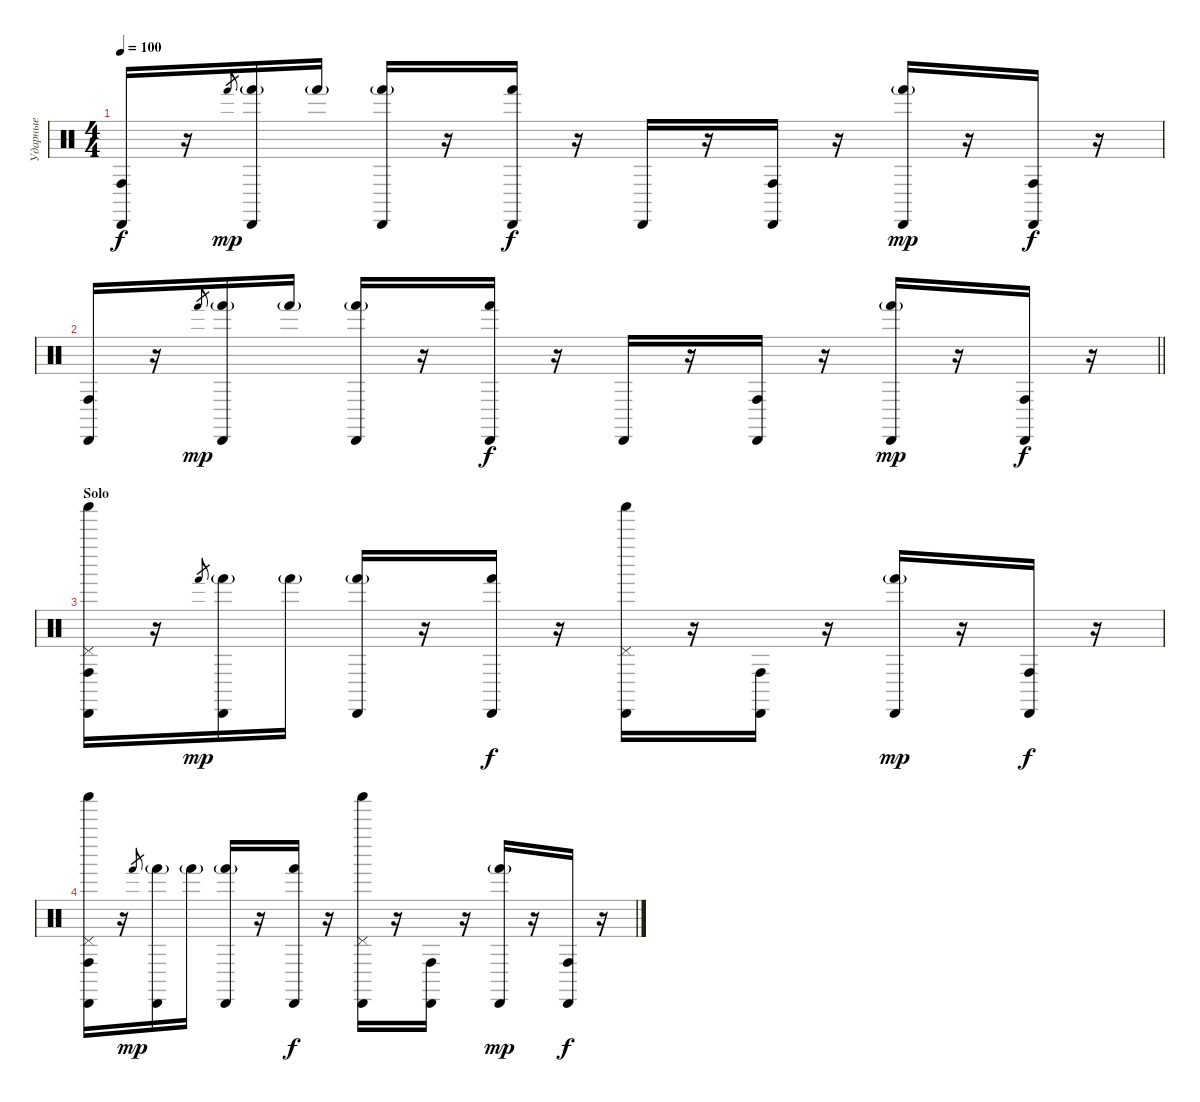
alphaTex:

\track ("Ударные" "Ударные") {instrument percussion}
\staff {score}
\articulation defaults
\ts (4 4)
\tempo 100
\clef neutral
\ks c
("Conga high (hit)" "Cabasa (hit)").16{dy f} r.16 "Hand (hit)".8{gr dy mp} ("Hand (hit)"{g} "Cabasa (hit)").16 "Hand (hit)"{g}.16 ("Hand (hit)"{g} "Cabasa (hit)").16 r.16 ("Hand (hit)" "Cabasa (hit)").16{dy f} r.16 "Cabasa (hit)".16 r.16 ("Conga high (hit)" "Cabasa (hit)").16 r.16 ("Hand (hit)"{g} "Cabasa (hit)").16{dy mp} r.16 ("Conga high (hit)" "Cabasa (hit)").16{dy f} r.16 |
\barLineRight lightlight
("Conga high (hit)" "Cabasa (hit)").16 r.16 "Hand (hit)".8{gr dy mp} ("Hand (hit)"{g} "Cabasa (hit)").16 "Hand (hit)"{g}.16 ("Hand (hit)"{g} "Cabasa (hit)").16 r.16 ("Hand (hit)" "Cabasa (hit)").16{dy f} r.16 "Cabasa (hit)".16 r.16 ("Conga high (hit)" "Cabasa (hit)").16 r.16 ("Hand (hit)"{g} "Cabasa (hit)").16{dy mp} r.16 ("Conga high (hit)" "Cabasa (hit)").16{dy f} r.16 |
\section ("" "Solo")
("Pedal Hi-Hat (hit)" "Shaker (hit)" "Conga high (hit)" "Cabasa (hit)").16 r.16 "Hand (hit)".8{gr dy mp} ("Hand (hit)"{g} "Cabasa (hit)").16 "Hand (hit)"{g}.16 ("Hand (hit)"{g} "Cabasa (hit)").16 r.16 ("Hand (hit)" "Cabasa (hit)").16{dy f} r.16 ("Pedal Hi-Hat (hit)" "Shaker (hit)" "Cabasa (hit)").16 r.16 ("Conga high (hit)" "Cabasa (hit)").16 r.16 ("Hand (hit)"{g} "Cabasa (hit)").16{dy mp} r.16 ("Conga high (hit)" "Cabasa (hit)").16{dy f} r.16 |
("Pedal Hi-Hat (hit)" "Shaker (hit)" "Conga high (hit)" "Cabasa (hit)").16 r.16 "Hand (hit)".8{gr dy mp} ("Hand (hit)"{g} "Cabasa (hit)").16 "Hand (hit)"{g}.16 ("Hand (hit)"{g} "Cabasa (hit)").16 r.16 ("Hand (hit)" "Cabasa (hit)").16{dy f} r.16 ("Pedal Hi-Hat (hit)" "Shaker (hit)" "Cabasa (hit)").16 r.16 ("Conga high (hit)" "Cabasa (hit)").16 r.16 ("Hand (hit)"{g} "Cabasa (hit)").16{dy mp} r.16 ("Conga high (hit)" "Cabasa (hit)").16{dy f} r.16
